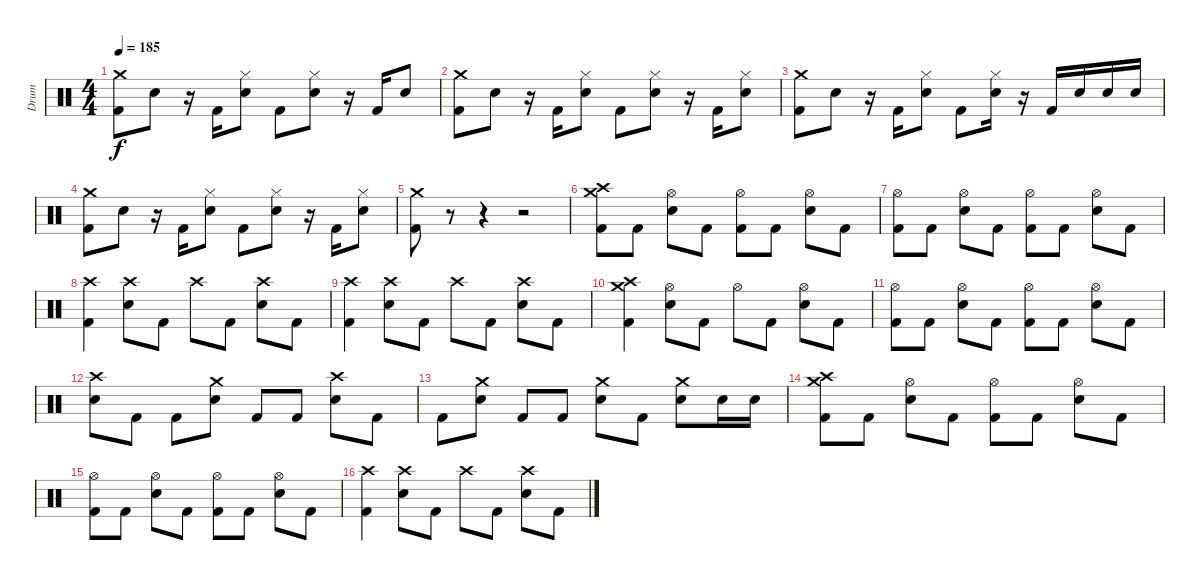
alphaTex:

\track ("Drum" "Drum") {instrument percussion}
\staff
\articulation defaults
\ts (4 4)
\tempo 185
\clef neutral
\ks c
("Crash medium (hit)" "Kick (hit) 2").8{dy f} "Electric Snare (hit)".8 r.16 "Kick (hit) 2".16 ("Hi-Hat (closed)" "Electric Snare (hit)").8 "Kick (hit) 2".8 ("Hi-Hat (closed)" "Electric Snare (hit)").8 r.16 "Kick (hit) 2".16 "Electric Snare (hit)".8 |
("Crash medium (hit)" "Kick (hit) 2").8 "Electric Snare (hit)".8 r.16 "Kick (hit) 2".16 ("Hi-Hat (closed)" "Electric Snare (hit)").8 "Kick (hit) 2".8 ("Hi-Hat (closed)" "Electric Snare (hit)").8 r.16 "Kick (hit) 2".16 ("Hi-Hat (closed)" "Electric Snare (hit)").8 |
("Crash medium (hit)" "Kick (hit) 2").8 "Electric Snare (hit)".8 r.16 "Kick (hit) 2".16 ("Hi-Hat (closed)" "Electric Snare (hit)").8 "Kick (hit) 2".8 ("Hi-Hat (closed)" "Electric Snare (hit)").16 r.16 "Kick (hit) 2".16 "Electric Snare (hit)".16 "Electric Snare (hit)".16 "Electric Snare (hit)".16 |
("Crash medium (hit)" "Kick (hit) 2").8 "Electric Snare (hit)".8 r.16 "Kick (hit) 2".16 ("Hi-Hat (closed)" "Electric Snare (hit)").8 "Kick (hit) 2".8 ("Hi-Hat (closed)" "Electric Snare (hit)").8 r.16 "Kick (hit) 2".16 ("Hi-Hat (closed)" "Electric Snare (hit)").8 |
("Crash medium (hit)" "Kick (hit) 2").8 r.8 r.4 r.2 |
("Crash high (hit)" "Crash medium (hit)" "Kick (hit) 2").8 "Kick (hit) 2".8 ("Hi-Hat (open)" "Electric Snare (hit)").8 "Kick (hit) 2".8 ("Hi-Hat (open)" "Kick (hit) 2").8 "Kick (hit) 2".8 ("Hi-Hat (open)" "Electric Snare (hit)").8 "Kick (hit) 2".8 |
("Hi-Hat (open)" "Kick (hit) 2").8 "Kick (hit) 2".8 ("Hi-Hat (open)" "Electric Snare (hit)").8 "Kick (hit) 2".8 ("Hi-Hat (open)" "Kick (hit) 2").8 "Kick (hit) 2".8 ("Hi-Hat (open)" "Electric Snare (hit)").8 "Kick (hit) 2".8 |
("Crash high (hit)" "Kick (hit) 2").4 ("Crash high (hit)" "Electric Snare (hit)").8 "Kick (hit) 2".8 "Crash high (hit)".8 "Kick (hit) 2".8 ("Crash high (hit)" "Electric Snare (hit)").8 "Kick (hit) 2".8 |
("Crash high (hit)" "Kick (hit) 2").4 ("Crash high (hit)" "Electric Snare (hit)").8 "Kick (hit) 2".8 "Crash high (hit)".8 "Kick (hit) 2".8 ("Crash high (hit)" "Electric Snare (hit)").8 "Kick (hit) 2".8 |
("Crash high (hit)" "Crash medium (hit)" "Kick (hit) 2").4 ("Hi-Hat (open)" "Electric Snare (hit)").8 "Kick (hit) 2".8 "Hi-Hat (open)".8 "Kick (hit) 2".8 ("Hi-Hat (open)" "Electric Snare (hit)").8 "Kick (hit) 2".8 |
("Hi-Hat (open)" "Kick (hit) 2").8 "Kick (hit) 2".8 ("Hi-Hat (open)" "Electric Snare (hit)").8 "Kick (hit) 2".8 ("Hi-Hat (open)" "Kick (hit) 2").8 "Kick (hit) 2".8 ("Hi-Hat (open)" "Electric Snare (hit)").8 "Kick (hit) 2".8 |
("Crash high (hit)" "Electric Snare (hit)").8 "Kick (hit) 2".8 "Kick (hit) 2".8 ("Crash medium (hit)" "Electric Snare (hit)").8 "Kick (hit) 2".8 "Kick (hit) 2".8 ("Crash high (hit)" "Electric Snare (hit)").8 "Kick (hit) 2".8 |
"Kick (hit) 2".8 ("Crash medium (hit)" "Electric Snare (hit)").8 "Kick (hit) 2".8 "Kick (hit) 2".8 ("Crash medium (hit)" "Electric Snare (hit)").8 "Kick (hit) 2".8 ("Crash medium (hit)" "Electric Snare (hit)").8 "Electric Snare (hit)".16 "Electric Snare (hit)".16 |
("Crash high (hit)" "Crash medium (hit)" "Kick (hit) 2").8 "Kick (hit) 2".8 ("Hi-Hat (open)" "Electric Snare (hit)").8 "Kick (hit) 2".8 ("Hi-Hat (open)" "Kick (hit) 2").8 "Kick (hit) 2".8 ("Hi-Hat (open)" "Electric Snare (hit)").8 "Kick (hit) 2".8 |
("Hi-Hat (open)" "Kick (hit) 2").8 "Kick (hit) 2".8 ("Hi-Hat (open)" "Electric Snare (hit)").8 "Kick (hit) 2".8 ("Hi-Hat (open)" "Kick (hit) 2").8 "Kick (hit) 2".8 ("Hi-Hat (open)" "Electric Snare (hit)").8 "Kick (hit) 2".8 |
("Crash high (hit)" "Kick (hit) 2").4 ("Crash high (hit)" "Electric Snare (hit)").8 "Kick (hit) 2".8 "Crash high (hit)".8 "Kick (hit) 2".8 ("Crash high (hit)" "Electric Snare (hit)").8 "Kick (hit) 2".8
